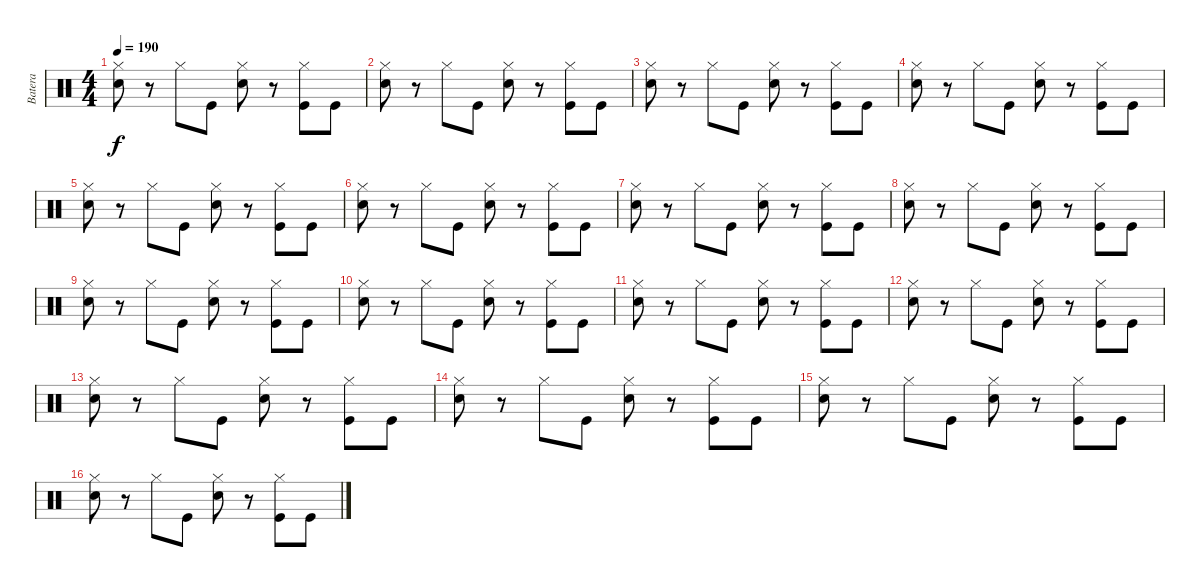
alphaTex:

\track ("Batera" "Batera") {instrument percussion}
\staff {score}
\articulation defaults
\ts (4 4)
\tempo 190
\clef neutral
\ks c
("Hi-Hat (closed)" "Snare (hit) 2").8{dy f} r.8 "Hi-Hat (closed)".8 "Kick (hit)".8 ("Hi-Hat (closed)" "Snare (hit) 2").8 r.8 ("Hi-Hat (closed)" "Kick (hit)").8 "Kick (hit)".8 |
("Hi-Hat (closed)" "Snare (hit) 2").8 r.8 "Hi-Hat (closed)".8 "Kick (hit)".8 ("Hi-Hat (closed)" "Snare (hit) 2").8 r.8 ("Hi-Hat (closed)" "Kick (hit)").8 "Kick (hit)".8 |
("Hi-Hat (closed)" "Snare (hit) 2").8 r.8 "Hi-Hat (closed)".8 "Kick (hit)".8 ("Hi-Hat (closed)" "Snare (hit) 2").8 r.8 ("Hi-Hat (closed)" "Kick (hit)").8 "Kick (hit)".8 |
("Hi-Hat (closed)" "Snare (hit) 2").8 r.8 "Hi-Hat (closed)".8 "Kick (hit)".8 ("Hi-Hat (closed)" "Snare (hit) 2").8 r.8 ("Hi-Hat (closed)" "Kick (hit)").8 "Kick (hit)".8 |
("Hi-Hat (closed)" "Snare (hit) 2").8 r.8 "Hi-Hat (closed)".8 "Kick (hit)".8 ("Hi-Hat (closed)" "Snare (hit) 2").8 r.8 ("Hi-Hat (closed)" "Kick (hit)").8 "Kick (hit)".8 |
("Hi-Hat (closed)" "Snare (hit) 2").8 r.8 "Hi-Hat (closed)".8 "Kick (hit)".8 ("Hi-Hat (closed)" "Snare (hit) 2").8 r.8 ("Hi-Hat (closed)" "Kick (hit)").8 "Kick (hit)".8 |
("Hi-Hat (closed)" "Snare (hit) 2").8 r.8 "Hi-Hat (closed)".8 "Kick (hit)".8 ("Hi-Hat (closed)" "Snare (hit) 2").8 r.8 ("Hi-Hat (closed)" "Kick (hit)").8 "Kick (hit)".8 |
("Hi-Hat (closed)" "Snare (hit) 2").8 r.8 "Hi-Hat (closed)".8 "Kick (hit)".8 ("Hi-Hat (closed)" "Snare (hit) 2").8 r.8 ("Hi-Hat (closed)" "Kick (hit)").8 "Kick (hit)".8 |
("Hi-Hat (closed)" "Snare (hit) 2").8 r.8 "Hi-Hat (closed)".8 "Kick (hit)".8 ("Hi-Hat (closed)" "Snare (hit) 2").8 r.8 ("Hi-Hat (closed)" "Kick (hit)").8 "Kick (hit)".8 |
("Hi-Hat (closed)" "Snare (hit) 2").8 r.8 "Hi-Hat (closed)".8 "Kick (hit)".8 ("Hi-Hat (closed)" "Snare (hit) 2").8 r.8 ("Hi-Hat (closed)" "Kick (hit)").8 "Kick (hit)".8 |
("Hi-Hat (closed)" "Snare (hit) 2").8 r.8 "Hi-Hat (closed)".8 "Kick (hit)".8 ("Hi-Hat (closed)" "Snare (hit) 2").8 r.8 ("Hi-Hat (closed)" "Kick (hit)").8 "Kick (hit)".8 |
("Hi-Hat (closed)" "Snare (hit) 2").8 r.8 "Hi-Hat (closed)".8 "Kick (hit)".8 ("Hi-Hat (closed)" "Snare (hit) 2").8 r.8 ("Hi-Hat (closed)" "Kick (hit)").8 "Kick (hit)".8 |
("Hi-Hat (closed)" "Snare (hit) 2").8 r.8 "Hi-Hat (closed)".8 "Kick (hit)".8 ("Hi-Hat (closed)" "Snare (hit) 2").8 r.8 ("Hi-Hat (closed)" "Kick (hit)").8 "Kick (hit)".8 |
("Hi-Hat (closed)" "Snare (hit) 2").8 r.8 "Hi-Hat (closed)".8 "Kick (hit)".8 ("Hi-Hat (closed)" "Snare (hit) 2").8 r.8 ("Hi-Hat (closed)" "Kick (hit)").8 "Kick (hit)".8 |
("Hi-Hat (closed)" "Snare (hit) 2").8 r.8 "Hi-Hat (closed)".8 "Kick (hit)".8 ("Hi-Hat (closed)" "Snare (hit) 2").8 r.8 ("Hi-Hat (closed)" "Kick (hit)").8 "Kick (hit)".8 |
("Hi-Hat (closed)" "Snare (hit) 2").8 r.8 "Hi-Hat (closed)".8 "Kick (hit)".8 ("Hi-Hat (closed)" "Snare (hit) 2").8 r.8 ("Hi-Hat (closed)" "Kick (hit)").8 "Kick (hit)".8
